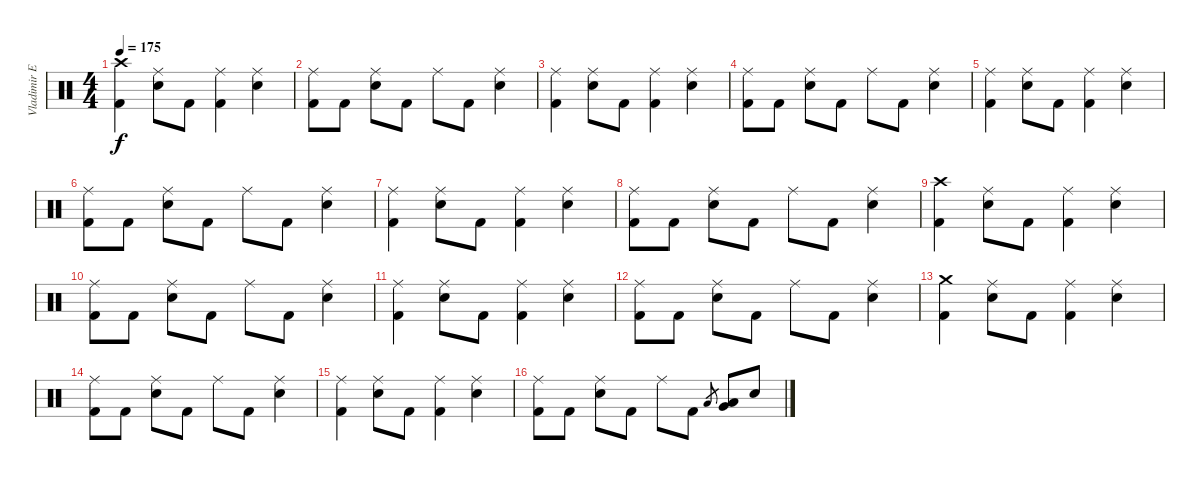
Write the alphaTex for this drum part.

\track ("Vladimir Ermakoff" "Vladimir E") {instrument percussion}
\staff {score}
\articulation defaults
\ts (4 4)
\tempo 175
\clef neutral
\ks c
("Crash high (hit)" "Kick (hit) 2").4{dy f} ("Ride (middle)" "Electric Snare (hit)").8 "Kick (hit) 2".8 ("Ride (middle)" "Kick (hit) 2").4 ("Ride (middle)" "Electric Snare (hit)").4 |
("Ride (middle)" "Kick (hit) 2").8 "Kick (hit) 2".8 ("Ride (middle)" "Electric Snare (hit)").8 "Kick (hit) 2".8 "Ride (middle)".8 "Kick (hit) 2".8 ("Ride (middle)" "Electric Snare (hit)").4 |
("Ride (middle)" "Kick (hit) 2").4 ("Ride (middle)" "Electric Snare (hit)").8 "Kick (hit) 2".8 ("Ride (middle)" "Kick (hit) 2").4 ("Ride (middle)" "Electric Snare (hit)").4 |
("Ride (middle)" "Kick (hit) 2").8 "Kick (hit) 2".8 ("Ride (middle)" "Electric Snare (hit)").8 "Kick (hit) 2".8 "Ride (middle)".8 "Kick (hit) 2".8 ("Ride (middle)" "Electric Snare (hit)").4 |
("Ride (middle)" "Kick (hit) 2").4 ("Ride (middle)" "Electric Snare (hit)").8 "Kick (hit) 2".8 ("Ride (middle)" "Kick (hit) 2").4 ("Ride (middle)" "Electric Snare (hit)").4 |
("Ride (middle)" "Kick (hit) 2").8 "Kick (hit) 2".8 ("Ride (middle)" "Electric Snare (hit)").8 "Kick (hit) 2".8 "Ride (middle)".8 "Kick (hit) 2".8 ("Ride (middle)" "Electric Snare (hit)").4 |
("Ride (middle)" "Kick (hit) 2").4 ("Ride (middle)" "Electric Snare (hit)").8 "Kick (hit) 2".8 ("Ride (middle)" "Kick (hit) 2").4 ("Ride (middle)" "Electric Snare (hit)").4 |
("Ride (middle)" "Kick (hit) 2").8 "Kick (hit) 2".8 ("Ride (middle)" "Electric Snare (hit)").8 "Kick (hit) 2".8 "Ride (middle)".8 "Kick (hit) 2".8 ("Ride (middle)" "Electric Snare (hit)").4 |
("Crash high (hit)" "Kick (hit) 2").4 ("Ride (middle)" "Electric Snare (hit)").8 "Kick (hit) 2".8 ("Ride (middle)" "Kick (hit) 2").4 ("Ride (middle)" "Electric Snare (hit)").4 |
("Ride (middle)" "Kick (hit) 2").8 "Kick (hit) 2".8 ("Ride (middle)" "Electric Snare (hit)").8 "Kick (hit) 2".8 "Ride (middle)".8 "Kick (hit) 2".8 ("Ride (middle)" "Electric Snare (hit)").4 |
("Ride (middle)" "Kick (hit) 2").4 ("Ride (middle)" "Electric Snare (hit)").8 "Kick (hit) 2".8 ("Ride (middle)" "Kick (hit) 2").4 ("Ride (middle)" "Electric Snare (hit)").4 |
("Ride (middle)" "Kick (hit) 2").8 "Kick (hit) 2".8 ("Ride (middle)" "Electric Snare (hit)").8 "Kick (hit) 2".8 "Ride (middle)".8 "Kick (hit) 2".8 ("Ride (middle)" "Electric Snare (hit)").4 |
("Crash medium (hit)" "Kick (hit) 2").4 ("Ride (middle)" "Electric Snare (hit)").8 "Kick (hit) 2".8 ("Ride (middle)" "Kick (hit) 2").4 ("Ride (middle)" "Electric Snare (hit)").4 |
("Ride (middle)" "Kick (hit) 2").8 "Kick (hit) 2".8 ("Ride (middle)" "Electric Snare (hit)").8 "Kick (hit) 2".8 "Ride (middle)".8 "Kick (hit) 2".8 ("Ride (middle)" "Electric Snare (hit)").4 |
("Ride (middle)" "Kick (hit) 2").4 ("Ride (middle)" "Electric Snare (hit)").8 "Kick (hit) 2".8 ("Ride (middle)" "Kick (hit) 2").4 ("Ride (middle)" "Electric Snare (hit)").4 |
("Ride (middle)" "Kick (hit) 2").8 "Kick (hit) 2".8 ("Ride (middle)" "Electric Snare (hit)").8 "Kick (hit) 2".8 "Ride (middle)".8 "Kick (hit) 2".8 "Low Tom (hit)".8{gr} ("Low Tom (hit)" "Very Low Tom (hit)").8 "Electric Snare (hit)".8
